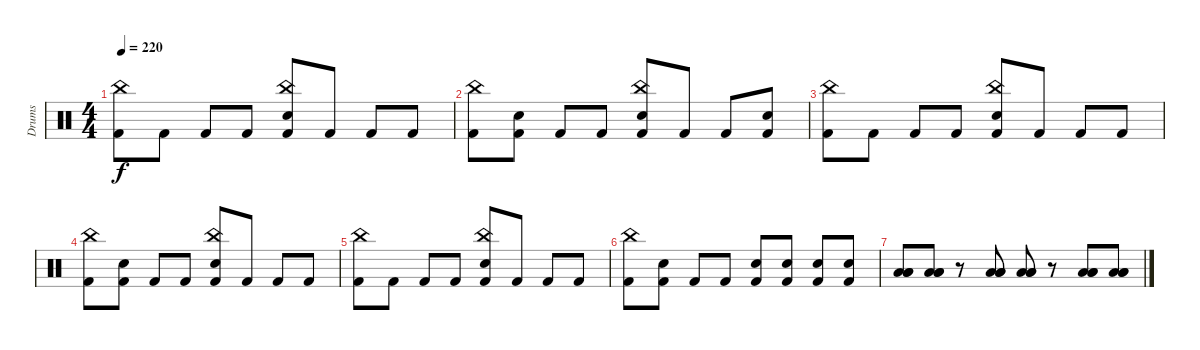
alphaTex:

\track ("Drums" "Drums") {instrument percussion}
\staff {score}
\articulation defaults
\ts (4 4)
\tempo 220
\clef neutral
\ks c
("Kick (hit) 2" "China (hit)").8{dy f} "Kick (hit) 2".8 "Kick (hit) 2".8 "Kick (hit) 2".8 ("Kick (hit) 2" "China (hit)" "Electric Snare (hit)").8 "Kick (hit) 2".8 "Kick (hit) 2".8 "Kick (hit) 2".8 |
("Kick (hit) 2" "China (hit)").8 ("Kick (hit) 2" "Electric Snare (hit)").8 "Kick (hit) 2".8 "Kick (hit) 2".8 ("Kick (hit) 2" "China (hit)" "Electric Snare (hit)").8 "Kick (hit) 2".8 "Kick (hit) 2".8 ("Kick (hit) 2" "Electric Snare (hit)").8 |
("Kick (hit) 2" "China (hit)").8 "Kick (hit) 2".8 "Kick (hit) 2".8 "Kick (hit) 2".8 ("Kick (hit) 2" "China (hit)" "Electric Snare (hit)").8 "Kick (hit) 2".8 "Kick (hit) 2".8 "Kick (hit) 2".8 |
("Kick (hit) 2" "China (hit)").8 ("Kick (hit) 2" "Electric Snare (hit)").8 "Kick (hit) 2".8 "Kick (hit) 2".8 ("Kick (hit) 2" "China (hit)" "Electric Snare (hit)").8 "Kick (hit) 2".8 "Kick (hit) 2".8 "Kick (hit) 2".8 |
("Kick (hit) 2" "China (hit)").8 "Kick (hit) 2".8 "Kick (hit) 2".8 "Kick (hit) 2".8 ("Kick (hit) 2" "China (hit)" "Electric Snare (hit)").8 "Kick (hit) 2".8 "Kick (hit) 2".8 "Kick (hit) 2".8 |
("Kick (hit) 2" "China (hit)").8 ("Kick (hit) 2" "Electric Snare (hit)").8 "Kick (hit) 2".8 "Kick (hit) 2".8 ("Kick (hit) 2" "Electric Snare (hit)").8 ("Kick (hit) 2" "Electric Snare (hit)").8 ("Kick (hit) 2" "Electric Snare (hit)").8 ("Kick (hit) 2" "Electric Snare (hit)").8 |
("Low Tom (hit)" "Low Tom (hit)" "Low Tom (hit)").8 ("Low Tom (hit)" "Low Tom (hit)" "Low Tom (hit)").8 r.8 ("Low Tom (hit)" "Low Tom (hit)" "Low Tom (hit)").8 ("Low Tom (hit)" "Low Tom (hit)" "Low Tom (hit)").8 r.8 ("Low Tom (hit)" "Low Tom (hit)" "Low Tom (hit)").8 ("Low Tom (hit)" "Low Tom (hit)" "Low Tom (hit)").8
